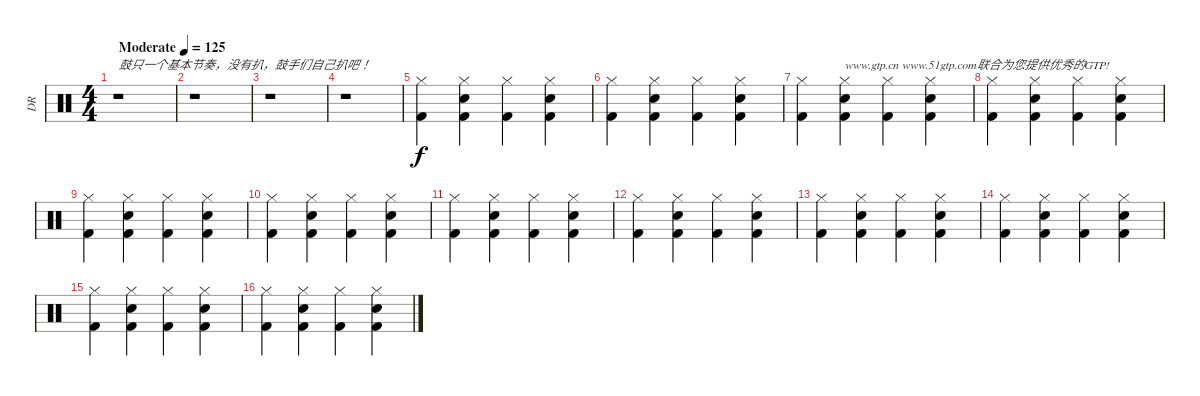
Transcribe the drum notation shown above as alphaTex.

\track ("DR" "DR") {instrument percussion}
\staff {score}
\articulation defaults
\ts (4 4)
\tempo (125 "Moderate")
\clef neutral
\ks c
r.1{txt "鼓只一个基本节奏，没有扒，鼓手们自己扒吧！" dy f} |
r.1 |
r.1 |
r.1 |
("Hi-Hat (closed)" "Kick (hit) 2").4 ("Kick (hit) 2" "Hand Clap (hit)" "Hi-Hat (closed)").4 ("Kick (hit) 2" "Hi-Hat (closed)").4 ("Kick (hit) 2" "Hi-Hat (closed)" "Hand Clap (hit)").4 |
("Hi-Hat (closed)" "Kick (hit) 2").4 ("Kick (hit) 2" "Hand Clap (hit)" "Hi-Hat (closed)").4 ("Kick (hit) 2" "Hi-Hat (closed)").4 ("Kick (hit) 2" "Hi-Hat (closed)" "Hand Clap (hit)").4 |
("Hi-Hat (closed)" "Kick (hit) 2").4 ("Kick (hit) 2" "Hand Clap (hit)" "Hi-Hat (closed)").4{txt "www.gtp.cn www.51gtp.com联合为您提供优秀的GTP!"} ("Kick (hit) 2" "Hi-Hat (closed)").4 ("Kick (hit) 2" "Hi-Hat (closed)" "Hand Clap (hit)").4 |
("Hi-Hat (closed)" "Kick (hit) 2").4 ("Kick (hit) 2" "Hand Clap (hit)" "Hi-Hat (closed)").4 ("Kick (hit) 2" "Hi-Hat (closed)").4 ("Kick (hit) 2" "Hi-Hat (closed)" "Hand Clap (hit)").4 |
("Hi-Hat (closed)" "Kick (hit) 2").4 ("Kick (hit) 2" "Hand Clap (hit)" "Hi-Hat (closed)").4 ("Kick (hit) 2" "Hi-Hat (closed)").4 ("Kick (hit) 2" "Hi-Hat (closed)" "Hand Clap (hit)").4 |
("Hi-Hat (closed)" "Kick (hit) 2").4 ("Kick (hit) 2" "Hand Clap (hit)" "Hi-Hat (closed)").4 ("Kick (hit) 2" "Hi-Hat (closed)").4 ("Kick (hit) 2" "Hi-Hat (closed)" "Hand Clap (hit)").4 |
("Hi-Hat (closed)" "Kick (hit) 2").4 ("Kick (hit) 2" "Hand Clap (hit)" "Hi-Hat (closed)").4 ("Kick (hit) 2" "Hi-Hat (closed)").4 ("Kick (hit) 2" "Hi-Hat (closed)" "Hand Clap (hit)").4 |
("Hi-Hat (closed)" "Kick (hit) 2").4 ("Kick (hit) 2" "Hand Clap (hit)" "Hi-Hat (closed)").4 ("Kick (hit) 2" "Hi-Hat (closed)").4 ("Kick (hit) 2" "Hi-Hat (closed)" "Hand Clap (hit)").4 |
("Hi-Hat (closed)" "Kick (hit) 2").4 ("Kick (hit) 2" "Hand Clap (hit)" "Hi-Hat (closed)").4 ("Kick (hit) 2" "Hi-Hat (closed)").4 ("Kick (hit) 2" "Hi-Hat (closed)" "Hand Clap (hit)").4 |
("Hi-Hat (closed)" "Kick (hit) 2").4 ("Kick (hit) 2" "Hand Clap (hit)" "Hi-Hat (closed)").4 ("Kick (hit) 2" "Hi-Hat (closed)").4 ("Kick (hit) 2" "Hi-Hat (closed)" "Hand Clap (hit)").4 |
("Hi-Hat (closed)" "Kick (hit) 2").4 ("Kick (hit) 2" "Hand Clap (hit)" "Hi-Hat (closed)").4 ("Kick (hit) 2" "Hi-Hat (closed)").4 ("Kick (hit) 2" "Hi-Hat (closed)" "Hand Clap (hit)").4 |
("Hi-Hat (closed)" "Kick (hit) 2").4 ("Kick (hit) 2" "Hand Clap (hit)" "Hi-Hat (closed)").4 ("Kick (hit) 2" "Hi-Hat (closed)").4 ("Kick (hit) 2" "Hi-Hat (closed)" "Hand Clap (hit)").4
